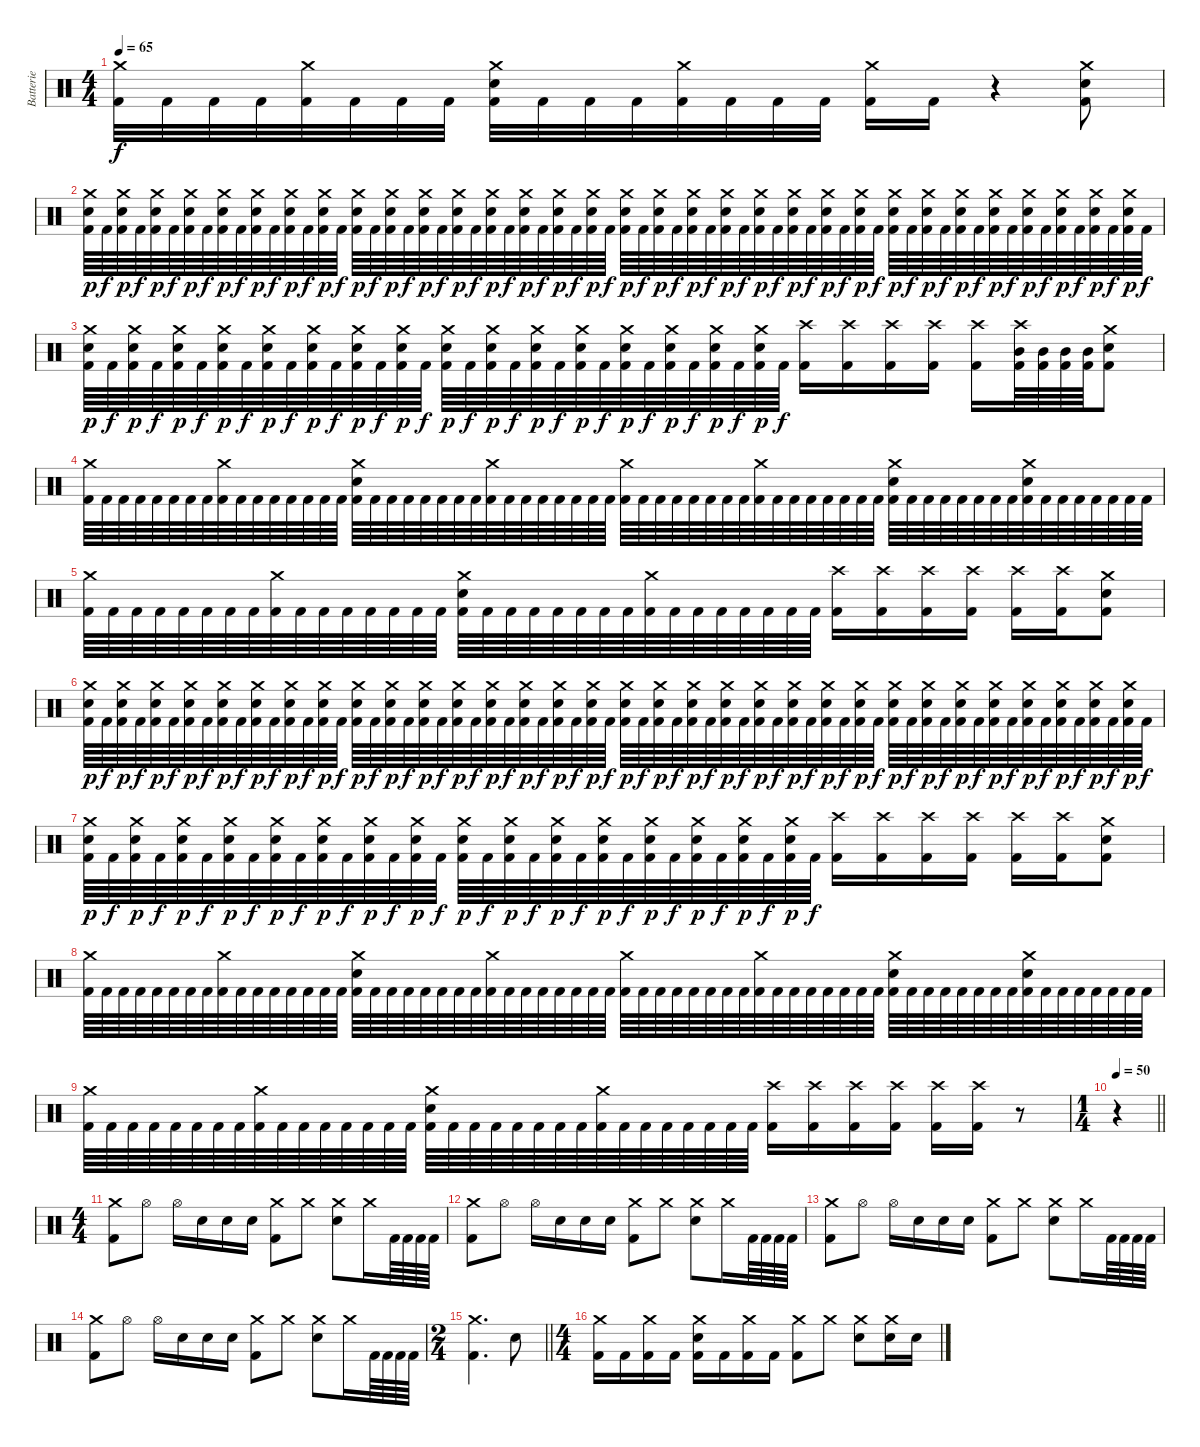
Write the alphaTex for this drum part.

\track ("Batterie" "Batterie") {instrument percussion}
\staff {score}
\articulation defaults
\ts (4 4)
\tempo 65
\clef neutral
\ks c
("Crash medium (hit)" "Kick (hit) 2").32{dy f} "Kick (hit) 2".32 "Kick (hit) 2".32 "Kick (hit) 2".32 ("Crash medium (hit)" "Kick (hit) 2").32 "Kick (hit) 2".32 "Kick (hit) 2".32 "Kick (hit) 2".32 ("Crash medium (hit)" "Electric Snare (hit)" "Kick (hit) 2").32 "Kick (hit) 2".32 "Kick (hit) 2".32 "Kick (hit) 2".32 ("Crash medium (hit)" "Kick (hit) 2").32 "Kick (hit) 2".32 "Kick (hit) 2".32 "Kick (hit) 2".32 ("Crash medium (hit)" "Kick (hit) 2").16 "Kick (hit) 2".16 r.4 ("Crash medium (hit)" "Electric Snare (hit)" "Kick (hit) 2").8 |
("Crash medium (hit)" "Electric Snare (hit)" "Kick (hit) 2").64{dy p} "Kick (hit) 2".64{dy f} ("Crash medium (hit)" "Electric Snare (hit)" "Kick (hit) 2").64{dy p} "Kick (hit) 2".64{dy f} ("Crash medium (hit)" "Electric Snare (hit)" "Kick (hit) 2").64{dy p} "Kick (hit) 2".64{dy f} ("Crash medium (hit)" "Electric Snare (hit)" "Kick (hit) 2").64{dy p} "Kick (hit) 2".64{dy f} ("Crash medium (hit)" "Electric Snare (hit)" "Kick (hit) 2").64{dy p} "Kick (hit) 2".64{dy f} ("Crash medium (hit)" "Electric Snare (hit)" "Kick (hit) 2").64{dy p} "Kick (hit) 2".64{dy f} ("Crash medium (hit)" "Electric Snare (hit)" "Kick (hit) 2").64{dy p} "Kick (hit) 2".64{dy f} ("Crash medium (hit)" "Electric Snare (hit)" "Kick (hit) 2").64{dy p} "Kick (hit) 2".64{dy f} ("Crash medium (hit)" "Electric Snare (hit)" "Kick (hit) 2").64{dy p} "Kick (hit) 2".64{dy f} ("Crash medium (hit)" "Electric Snare (hit)" "Kick (hit) 2").64{dy p} "Kick (hit) 2".64{dy f} ("Crash medium (hit)" "Electric Snare (hit)" "Kick (hit) 2").64{dy p} "Kick (hit) 2".64{dy f} ("Crash medium (hit)" "Electric Snare (hit)" "Kick (hit) 2").64{dy p} "Kick (hit) 2".64{dy f} ("Crash medium (hit)" "Electric Snare (hit)" "Kick (hit) 2").64{dy p} "Kick (hit) 2".64{dy f} ("Crash medium (hit)" "Electric Snare (hit)" "Kick (hit) 2").64{dy p} "Kick (hit) 2".64{dy f} ("Crash medium (hit)" "Electric Snare (hit)" "Kick (hit) 2").64{dy p} "Kick (hit) 2".64{dy f} ("Crash medium (hit)" "Electric Snare (hit)" "Kick (hit) 2").64{dy p} "Kick (hit) 2".64{dy f} ("Crash medium (hit)" "Electric Snare (hit)" "Kick (hit) 2").64{dy p} "Kick (hit) 2".64{dy f} ("Crash medium (hit)" "Electric Snare (hit)" "Kick (hit) 2").64{dy p} "Kick (hit) 2".64{dy f} ("Crash medium (hit)" "Electric Snare (hit)" "Kick (hit) 2").64{dy p} "Kick (hit) 2".64{dy f} ("Crash medium (hit)" "Electric Snare (hit)" "Kick (hit) 2").64{dy p} "Kick (hit) 2".64{dy f} ("Crash medium (hit)" "Electric Snare (hit)" "Kick (hit) 2").64{dy p} "Kick (hit) 2".64{dy f} ("Crash medium (hit)" "Electric Snare (hit)" "Kick (hit) 2").64{dy p} "Kick (hit) 2".64{dy f} ("Crash medium (hit)" "Electric Snare (hit)" "Kick (hit) 2").64{dy p} "Kick (hit) 2".64{dy f} ("Crash medium (hit)" "Electric Snare (hit)" "Kick (hit) 2").64{dy p} "Kick (hit) 2".64{dy f} ("Crash medium (hit)" "Electric Snare (hit)" "Kick (hit) 2").64{dy p} "Kick (hit) 2".64{dy f} ("Crash medium (hit)" "Electric Snare (hit)" "Kick (hit) 2").64{dy p} "Kick (hit) 2".64{dy f} ("Crash medium (hit)" "Electric Snare (hit)" "Kick (hit) 2").64{dy p} "Kick (hit) 2".64{dy f} ("Crash medium (hit)" "Electric Snare (hit)" "Kick (hit) 2").64{dy p} "Kick (hit) 2".64{dy f} ("Crash medium (hit)" "Electric Snare (hit)" "Kick (hit) 2").64{dy p} "Kick (hit) 2".64{dy f} ("Crash medium (hit)" "Electric Snare (hit)" "Kick (hit) 2").64{dy p} "Kick (hit) 2".64{dy f} ("Crash medium (hit)" "Electric Snare (hit)" "Kick (hit) 2").64{dy p} "Kick (hit) 2".64{dy f} ("Crash medium (hit)" "Electric Snare (hit)" "Kick (hit) 2").64{dy p} "Kick (hit) 2".64{dy f} |
("Crash medium (hit)" "Electric Snare (hit)" "Kick (hit) 2").64{dy p} "Kick (hit) 2".64{dy f} ("Crash medium (hit)" "Electric Snare (hit)" "Kick (hit) 2").64{dy p} "Kick (hit) 2".64{dy f} ("Crash medium (hit)" "Electric Snare (hit)" "Kick (hit) 2").64{dy p} "Kick (hit) 2".64{dy f} ("Crash medium (hit)" "Electric Snare (hit)" "Kick (hit) 2").64{dy p} "Kick (hit) 2".64{dy f} ("Crash medium (hit)" "Electric Snare (hit)" "Kick (hit) 2").64{dy p} "Kick (hit) 2".64{dy f} ("Crash medium (hit)" "Electric Snare (hit)" "Kick (hit) 2").64{dy p} "Kick (hit) 2".64{dy f} ("Crash medium (hit)" "Electric Snare (hit)" "Kick (hit) 2").64{dy p} "Kick (hit) 2".64{dy f} ("Crash medium (hit)" "Electric Snare (hit)" "Kick (hit) 2").64{dy p} "Kick (hit) 2".64{dy f} ("Crash medium (hit)" "Electric Snare (hit)" "Kick (hit) 2").64{dy p} "Kick (hit) 2".64{dy f} ("Crash medium (hit)" "Electric Snare (hit)" "Kick (hit) 2").64{dy p} "Kick (hit) 2".64{dy f} ("Crash medium (hit)" "Electric Snare (hit)" "Kick (hit) 2").64{dy p} "Kick (hit) 2".64{dy f} ("Crash medium (hit)" "Electric Snare (hit)" "Kick (hit) 2").64{dy p} "Kick (hit) 2".64{dy f} ("Crash medium (hit)" "Electric Snare (hit)" "Kick (hit) 2").64{dy p} "Kick (hit) 2".64{dy f} ("Crash medium (hit)" "Electric Snare (hit)" "Kick (hit) 2").64{dy p} "Kick (hit) 2".64{dy f} ("Crash medium (hit)" "Electric Snare (hit)" "Kick (hit) 2").64{dy p} "Kick (hit) 2".64{dy f} ("Crash medium (hit)" "Electric Snare (hit)" "Kick (hit) 2").64{dy p} "Kick (hit) 2".64{dy f} ("Crash high (hit)" "Kick (hit) 2").16 ("Crash high (hit)" "Kick (hit) 2").16 ("Crash high (hit)" "Kick (hit) 2").16 ("Crash high (hit)" "Kick (hit) 2").16 ("Crash high (hit)" "Kick (hit) 2").16 ("Crash high (hit)" "Mid Tom (hit)" "Kick (hit) 2").64 ("Mid Tom (hit)" "Kick (hit) 2").64 ("Mid Tom (hit)" "Kick (hit) 2").64 ("Mid Tom (hit)" "Kick (hit) 2").64 ("Crash medium (hit)" "Electric Snare (hit)" "Kick (hit) 2").8 |
("Crash medium (hit)" "Kick (hit) 2").64 "Kick (hit) 2".64 "Kick (hit) 2".64 "Kick (hit) 2".64 "Kick (hit) 2".64 "Kick (hit) 2".64 "Kick (hit) 2".64 "Kick (hit) 2".64 ("Crash medium (hit)" "Kick (hit) 2").64 "Kick (hit) 2".64 "Kick (hit) 2".64 "Kick (hit) 2".64 "Kick (hit) 2".64 "Kick (hit) 2".64 "Kick (hit) 2".64 "Kick (hit) 2".64 ("Crash medium (hit)" "Electric Snare (hit)" "Kick (hit) 2").64 "Kick (hit) 2".64 "Kick (hit) 2".64 "Kick (hit) 2".64 "Kick (hit) 2".64 "Kick (hit) 2".64 "Kick (hit) 2".64 "Kick (hit) 2".64 ("Crash medium (hit)" "Kick (hit) 2").64 "Kick (hit) 2".64 "Kick (hit) 2".64 "Kick (hit) 2".64 "Kick (hit) 2".64 "Kick (hit) 2".64 "Kick (hit) 2".64 "Kick (hit) 2".64 ("Crash medium (hit)" "Kick (hit) 2").64 "Kick (hit) 2".64 "Kick (hit) 2".64 "Kick (hit) 2".64 "Kick (hit) 2".64 "Kick (hit) 2".64 "Kick (hit) 2".64 "Kick (hit) 2".64 ("Crash medium (hit)" "Kick (hit) 2").64 "Kick (hit) 2".64 "Kick (hit) 2".64 "Kick (hit) 2".64 "Kick (hit) 2".64 "Kick (hit) 2".64 "Kick (hit) 2".64 "Kick (hit) 2".64 ("Crash medium (hit)" "Electric Snare (hit)" "Kick (hit) 2").64 "Kick (hit) 2".64 "Kick (hit) 2".64 "Kick (hit) 2".64 "Kick (hit) 2".64 "Kick (hit) 2".64 "Kick (hit) 2".64 "Kick (hit) 2".64 ("Crash medium (hit)" "Electric Snare (hit)" "Kick (hit) 2").64 "Kick (hit) 2".64 "Kick (hit) 2".64 "Kick (hit) 2".64 "Kick (hit) 2".64 "Kick (hit) 2".64 "Kick (hit) 2".64 "Kick (hit) 2".64 |
("Crash medium (hit)" "Kick (hit) 2").64 "Kick (hit) 2".64 "Kick (hit) 2".64 "Kick (hit) 2".64 "Kick (hit) 2".64 "Kick (hit) 2".64 "Kick (hit) 2".64 "Kick (hit) 2".64 ("Crash medium (hit)" "Kick (hit) 2").64 "Kick (hit) 2".64 "Kick (hit) 2".64 "Kick (hit) 2".64 "Kick (hit) 2".64 "Kick (hit) 2".64 "Kick (hit) 2".64 "Kick (hit) 2".64 ("Crash medium (hit)" "Electric Snare (hit)" "Kick (hit) 2").64 "Kick (hit) 2".64 "Kick (hit) 2".64 "Kick (hit) 2".64 "Kick (hit) 2".64 "Kick (hit) 2".64 "Kick (hit) 2".64 "Kick (hit) 2".64 ("Crash medium (hit)" "Kick (hit) 2").64 "Kick (hit) 2".64 "Kick (hit) 2".64 "Kick (hit) 2".64 "Kick (hit) 2".64 "Kick (hit) 2".64 "Kick (hit) 2".64 "Kick (hit) 2".64 ("Crash high (hit)" "Kick (hit) 2").16 ("Crash high (hit)" "Kick (hit) 2").16 ("Crash high (hit)" "Kick (hit) 2").16 ("Crash high (hit)" "Kick (hit) 2").16 ("Crash high (hit)" "Kick (hit) 2").16 ("Crash high (hit)" "Kick (hit) 2").16 ("Crash medium (hit)" "Electric Snare (hit)" "Kick (hit) 2").8 |
("Crash medium (hit)" "Electric Snare (hit)" "Kick (hit) 2").64{dy p} "Kick (hit) 2".64{dy f} ("Crash medium (hit)" "Electric Snare (hit)" "Kick (hit) 2").64{dy p} "Kick (hit) 2".64{dy f} ("Crash medium (hit)" "Electric Snare (hit)" "Kick (hit) 2").64{dy p} "Kick (hit) 2".64{dy f} ("Crash medium (hit)" "Electric Snare (hit)" "Kick (hit) 2").64{dy p} "Kick (hit) 2".64{dy f} ("Crash medium (hit)" "Electric Snare (hit)" "Kick (hit) 2").64{dy p} "Kick (hit) 2".64{dy f} ("Crash medium (hit)" "Electric Snare (hit)" "Kick (hit) 2").64{dy p} "Kick (hit) 2".64{dy f} ("Crash medium (hit)" "Electric Snare (hit)" "Kick (hit) 2").64{dy p} "Kick (hit) 2".64{dy f} ("Crash medium (hit)" "Electric Snare (hit)" "Kick (hit) 2").64{dy p} "Kick (hit) 2".64{dy f} ("Crash medium (hit)" "Electric Snare (hit)" "Kick (hit) 2").64{dy p} "Kick (hit) 2".64{dy f} ("Crash medium (hit)" "Electric Snare (hit)" "Kick (hit) 2").64{dy p} "Kick (hit) 2".64{dy f} ("Crash medium (hit)" "Electric Snare (hit)" "Kick (hit) 2").64{dy p} "Kick (hit) 2".64{dy f} ("Crash medium (hit)" "Electric Snare (hit)" "Kick (hit) 2").64{dy p} "Kick (hit) 2".64{dy f} ("Crash medium (hit)" "Electric Snare (hit)" "Kick (hit) 2").64{dy p} "Kick (hit) 2".64{dy f} ("Crash medium (hit)" "Electric Snare (hit)" "Kick (hit) 2").64{dy p} "Kick (hit) 2".64{dy f} ("Crash medium (hit)" "Electric Snare (hit)" "Kick (hit) 2").64{dy p} "Kick (hit) 2".64{dy f} ("Crash medium (hit)" "Electric Snare (hit)" "Kick (hit) 2").64{dy p} "Kick (hit) 2".64{dy f} ("Crash medium (hit)" "Electric Snare (hit)" "Kick (hit) 2").64{dy p} "Kick (hit) 2".64{dy f} ("Crash medium (hit)" "Electric Snare (hit)" "Kick (hit) 2").64{dy p} "Kick (hit) 2".64{dy f} ("Crash medium (hit)" "Electric Snare (hit)" "Kick (hit) 2").64{dy p} "Kick (hit) 2".64{dy f} ("Crash medium (hit)" "Electric Snare (hit)" "Kick (hit) 2").64{dy p} "Kick (hit) 2".64{dy f} ("Crash medium (hit)" "Electric Snare (hit)" "Kick (hit) 2").64{dy p} "Kick (hit) 2".64{dy f} ("Crash medium (hit)" "Electric Snare (hit)" "Kick (hit) 2").64{dy p} "Kick (hit) 2".64{dy f} ("Crash medium (hit)" "Electric Snare (hit)" "Kick (hit) 2").64{dy p} "Kick (hit) 2".64{dy f} ("Crash medium (hit)" "Electric Snare (hit)" "Kick (hit) 2").64{dy p} "Kick (hit) 2".64{dy f} ("Crash medium (hit)" "Electric Snare (hit)" "Kick (hit) 2").64{dy p} "Kick (hit) 2".64{dy f} ("Crash medium (hit)" "Electric Snare (hit)" "Kick (hit) 2").64{dy p} "Kick (hit) 2".64{dy f} ("Crash medium (hit)" "Electric Snare (hit)" "Kick (hit) 2").64{dy p} "Kick (hit) 2".64{dy f} ("Crash medium (hit)" "Electric Snare (hit)" "Kick (hit) 2").64{dy p} "Kick (hit) 2".64{dy f} ("Crash medium (hit)" "Electric Snare (hit)" "Kick (hit) 2").64{dy p} "Kick (hit) 2".64{dy f} ("Crash medium (hit)" "Electric Snare (hit)" "Kick (hit) 2").64{dy p} "Kick (hit) 2".64{dy f} ("Crash medium (hit)" "Electric Snare (hit)" "Kick (hit) 2").64{dy p} "Kick (hit) 2".64{dy f} ("Crash medium (hit)" "Electric Snare (hit)" "Kick (hit) 2").64{dy p} "Kick (hit) 2".64{dy f} |
("Crash medium (hit)" "Electric Snare (hit)" "Kick (hit) 2").64{dy p} "Kick (hit) 2".64{dy f} ("Crash medium (hit)" "Electric Snare (hit)" "Kick (hit) 2").64{dy p} "Kick (hit) 2".64{dy f} ("Crash medium (hit)" "Electric Snare (hit)" "Kick (hit) 2").64{dy p} "Kick (hit) 2".64{dy f} ("Crash medium (hit)" "Electric Snare (hit)" "Kick (hit) 2").64{dy p} "Kick (hit) 2".64{dy f} ("Crash medium (hit)" "Electric Snare (hit)" "Kick (hit) 2").64{dy p} "Kick (hit) 2".64{dy f} ("Crash medium (hit)" "Electric Snare (hit)" "Kick (hit) 2").64{dy p} "Kick (hit) 2".64{dy f} ("Crash medium (hit)" "Electric Snare (hit)" "Kick (hit) 2").64{dy p} "Kick (hit) 2".64{dy f} ("Crash medium (hit)" "Electric Snare (hit)" "Kick (hit) 2").64{dy p} "Kick (hit) 2".64{dy f} ("Crash medium (hit)" "Electric Snare (hit)" "Kick (hit) 2").64{dy p} "Kick (hit) 2".64{dy f} ("Crash medium (hit)" "Electric Snare (hit)" "Kick (hit) 2").64{dy p} "Kick (hit) 2".64{dy f} ("Crash medium (hit)" "Electric Snare (hit)" "Kick (hit) 2").64{dy p} "Kick (hit) 2".64{dy f} ("Crash medium (hit)" "Electric Snare (hit)" "Kick (hit) 2").64{dy p} "Kick (hit) 2".64{dy f} ("Crash medium (hit)" "Electric Snare (hit)" "Kick (hit) 2").64{dy p} "Kick (hit) 2".64{dy f} ("Crash medium (hit)" "Electric Snare (hit)" "Kick (hit) 2").64{dy p} "Kick (hit) 2".64{dy f} ("Crash medium (hit)" "Electric Snare (hit)" "Kick (hit) 2").64{dy p} "Kick (hit) 2".64{dy f} ("Crash medium (hit)" "Electric Snare (hit)" "Kick (hit) 2").64{dy p} "Kick (hit) 2".64{dy f} ("Crash high (hit)" "Kick (hit) 2").16 ("Crash high (hit)" "Kick (hit) 2").16 ("Crash high (hit)" "Kick (hit) 2").16 ("Crash high (hit)" "Kick (hit) 2").16 ("Crash high (hit)" "Kick (hit) 2").16 ("Crash high (hit)" "Kick (hit) 2").16 ("Crash medium (hit)" "Electric Snare (hit)" "Kick (hit) 2").8 |
("Crash medium (hit)" "Kick (hit) 2").64 "Kick (hit) 2".64 "Kick (hit) 2".64 "Kick (hit) 2".64 "Kick (hit) 2".64 "Kick (hit) 2".64 "Kick (hit) 2".64 "Kick (hit) 2".64 ("Crash medium (hit)" "Kick (hit) 2").64 "Kick (hit) 2".64 "Kick (hit) 2".64 "Kick (hit) 2".64 "Kick (hit) 2".64 "Kick (hit) 2".64 "Kick (hit) 2".64 "Kick (hit) 2".64 ("Crash medium (hit)" "Electric Snare (hit)" "Kick (hit) 2").64 "Kick (hit) 2".64 "Kick (hit) 2".64 "Kick (hit) 2".64 "Kick (hit) 2".64 "Kick (hit) 2".64 "Kick (hit) 2".64 "Kick (hit) 2".64 ("Crash medium (hit)" "Kick (hit) 2").64 "Kick (hit) 2".64 "Kick (hit) 2".64 "Kick (hit) 2".64 "Kick (hit) 2".64 "Kick (hit) 2".64 "Kick (hit) 2".64 "Kick (hit) 2".64 ("Crash medium (hit)" "Kick (hit) 2").64 "Kick (hit) 2".64 "Kick (hit) 2".64 "Kick (hit) 2".64 "Kick (hit) 2".64 "Kick (hit) 2".64 "Kick (hit) 2".64 "Kick (hit) 2".64 ("Crash medium (hit)" "Kick (hit) 2").64 "Kick (hit) 2".64 "Kick (hit) 2".64 "Kick (hit) 2".64 "Kick (hit) 2".64 "Kick (hit) 2".64 "Kick (hit) 2".64 "Kick (hit) 2".64 ("Crash medium (hit)" "Electric Snare (hit)" "Kick (hit) 2").64 "Kick (hit) 2".64 "Kick (hit) 2".64 "Kick (hit) 2".64 "Kick (hit) 2".64 "Kick (hit) 2".64 "Kick (hit) 2".64 "Kick (hit) 2".64 ("Crash medium (hit)" "Electric Snare (hit)" "Kick (hit) 2").64 "Kick (hit) 2".64 "Kick (hit) 2".64 "Kick (hit) 2".64 "Kick (hit) 2".64 "Kick (hit) 2".64 "Kick (hit) 2".64 "Kick (hit) 2".64 |
("Crash medium (hit)" "Kick (hit) 2").64 "Kick (hit) 2".64 "Kick (hit) 2".64 "Kick (hit) 2".64 "Kick (hit) 2".64 "Kick (hit) 2".64 "Kick (hit) 2".64 "Kick (hit) 2".64 ("Crash medium (hit)" "Kick (hit) 2").64 "Kick (hit) 2".64 "Kick (hit) 2".64 "Kick (hit) 2".64 "Kick (hit) 2".64 "Kick (hit) 2".64 "Kick (hit) 2".64 "Kick (hit) 2".64 ("Crash medium (hit)" "Electric Snare (hit)" "Kick (hit) 2").64 "Kick (hit) 2".64 "Kick (hit) 2".64 "Kick (hit) 2".64 "Kick (hit) 2".64 "Kick (hit) 2".64 "Kick (hit) 2".64 "Kick (hit) 2".64 ("Crash medium (hit)" "Kick (hit) 2").64 "Kick (hit) 2".64 "Kick (hit) 2".64 "Kick (hit) 2".64 "Kick (hit) 2".64 "Kick (hit) 2".64 "Kick (hit) 2".64 "Kick (hit) 2".64 ("Crash high (hit)" "Kick (hit) 2").16 ("Crash high (hit)" "Kick (hit) 2").16 ("Crash high (hit)" "Kick (hit) 2").16 ("Crash high (hit)" "Kick (hit) 2").16 ("Crash high (hit)" "Kick (hit) 2").16 ("Crash high (hit)" "Kick (hit) 2").16 r.8 |
\ts (1 4)
\tempo 50
\barLineRight lightlight
r.4 |
\ts (4 4)
\section ("" "")
("Crash medium (hit)" "Kick (hit) 2").8 "Hi-Hat (open)".8 "Hi-Hat (open)".16 "Electric Snare (hit)".16 "Electric Snare (hit)".16 "Electric Snare (hit)".16 ("Crash medium (hit)" "Kick (hit) 2").8 "Crash medium (hit)".8 ("Crash medium (hit)" "Electric Snare (hit)").8 "Crash medium (hit)".16 "Kick (hit) 2".64 "Kick (hit) 2".64 "Kick (hit) 2".64 "Kick (hit) 2".64 |
("Crash medium (hit)" "Kick (hit) 2").8 "Hi-Hat (open)".8 "Hi-Hat (open)".16 "Electric Snare (hit)".16 "Electric Snare (hit)".16 "Electric Snare (hit)".16 ("Crash medium (hit)" "Kick (hit) 2").8 "Crash medium (hit)".8 ("Crash medium (hit)" "Electric Snare (hit)").8 "Crash medium (hit)".16 "Kick (hit) 2".64 "Kick (hit) 2".64 "Kick (hit) 2".64 "Kick (hit) 2".64 |
("Crash medium (hit)" "Kick (hit) 2").8 "Hi-Hat (open)".8 "Hi-Hat (open)".16 "Electric Snare (hit)".16 "Electric Snare (hit)".16 "Electric Snare (hit)".16 ("Crash medium (hit)" "Kick (hit) 2").8 "Crash medium (hit)".8 ("Crash medium (hit)" "Electric Snare (hit)").8 "Crash medium (hit)".16 "Kick (hit) 2".64 "Kick (hit) 2".64 "Kick (hit) 2".64 "Kick (hit) 2".64 |
("Crash medium (hit)" "Kick (hit) 2").8 "Hi-Hat (open)".8 "Hi-Hat (open)".16 "Electric Snare (hit)".16 "Electric Snare (hit)".16 "Electric Snare (hit)".16 ("Crash medium (hit)" "Kick (hit) 2").8 "Crash medium (hit)".8 ("Crash medium (hit)" "Electric Snare (hit)").8 "Crash medium (hit)".16 "Kick (hit) 2".64 "Kick (hit) 2".64 "Kick (hit) 2".64 "Kick (hit) 2".64 |
\ts (2 4)
\barLineRight lightlight
("Crash medium (hit)" "Kick (hit) 2").4{d} "Electric Snare (hit)".8 |
\ts (4 4)
\section ("" "")
("Crash medium (hit)" "Kick (hit) 2").16 "Kick (hit) 2".16 ("Crash medium (hit)" "Kick (hit) 2").16 "Kick (hit) 2".16 ("Crash medium (hit)" "Electric Snare (hit)" "Kick (hit) 2").16 "Kick (hit) 2".16 ("Crash medium (hit)" "Kick (hit) 2").16 "Kick (hit) 2".16 ("Crash medium (hit)" "Kick (hit) 2").8 "Crash medium (hit)".8 ("Crash medium (hit)" "Electric Snare (hit)").8 ("Crash medium (hit)" "Electric Snare (hit)").16 "Electric Snare (hit)".16
